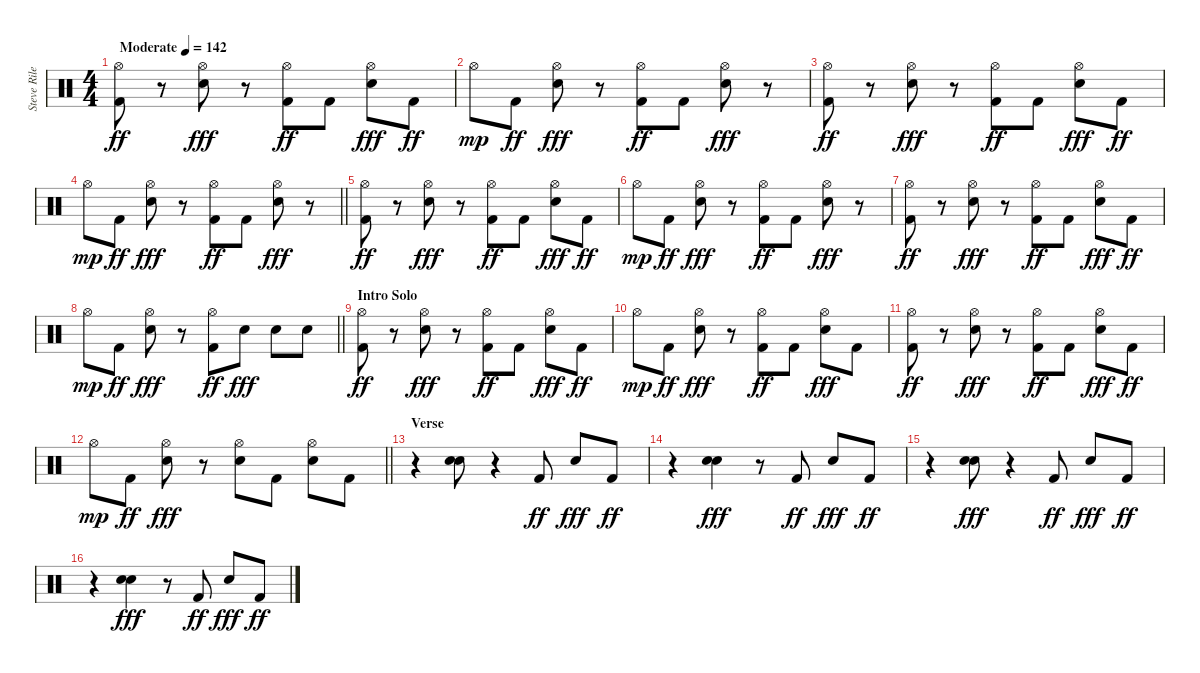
\track ("Steve Riley" "Steve Rile") {instrument percussion}
\staff {score}
\articulation defaults
\ts (4 4)
\tempo (142 "Moderate")
\clef neutral
\ks c
("Hi-Hat (open)" "Kick (hit) 2").8{dy ff} r.8 ("Hi-Hat (open)" "Electric Snare (hit)").8{dy fff} r.8 ("Hi-Hat (open)" "Kick (hit) 2").8{dy ff} "Kick (hit) 2".8 ("Hi-Hat (open)" "Electric Snare (hit)").8{dy fff} "Kick (hit) 2".8{dy ff} |
"Hi-Hat (open)".8{dy mp} "Kick (hit) 2".8{dy ff} ("Hi-Hat (open)" "Electric Snare (hit)").8{dy fff} r.8 ("Hi-Hat (open)" "Kick (hit) 2").8{dy ff} "Kick (hit) 2".8 ("Hi-Hat (open)" "Electric Snare (hit)").8{dy fff} r.8 |
("Hi-Hat (open)" "Kick (hit) 2").8{dy ff} r.8 ("Hi-Hat (open)" "Electric Snare (hit)").8{dy fff} r.8 ("Hi-Hat (open)" "Kick (hit) 2").8{dy ff} "Kick (hit) 2".8 ("Hi-Hat (open)" "Electric Snare (hit)").8{dy fff} "Kick (hit) 2".8{dy ff} |
\barLineRight lightlight "Hi-Hat (open)".8{dy mp} "Kick (hit) 2".8{dy ff}
("Hi-Hat (open)" "Electric Snare (hit)").8{dy fff} r.8 ("Hi-Hat (open)" "Kick (hit) 2").8{dy ff} "Kick (hit) 2".8 ("Hi-Hat (open)" "Electric Snare (hit)").8{dy fff} r.8 |
\section ("" "")
("Hi-Hat (open)" "Kick (hit) 2").8{dy ff} r.8 ("Hi-Hat (open)" "Electric Snare (hit)").8{dy fff} r.8 ("Hi-Hat (open)" "Kick (hit) 2").8{dy ff} "Kick (hit) 2".8 ("Hi-Hat (open)" "Electric Snare (hit)").8{dy fff} "Kick (hit) 2".8{dy ff} |
"Hi-Hat (open)".8{dy mp} "Kick (hit) 2".8{dy ff} ("Hi-Hat (open)" "Electric Snare (hit)").8{dy fff} r.8 ("Hi-Hat (open)" "Kick (hit) 2").8{dy ff} "Kick (hit) 2".8 ("Hi-Hat (open)" "Electric Snare (hit)").8{dy fff} r.8 |
("Hi-Hat (open)" "Kick (hit) 2").8{dy ff} r.8 ("Hi-Hat (open)" "Electric Snare (hit)").8{dy fff} r.8 ("Hi-Hat (open)" "Kick (hit) 2").8{dy ff} "Kick (hit) 2".8 ("Hi-Hat (open)" "Electric Snare (hit)").8{dy fff} "Kick (hit) 2".8{dy ff} |
\barLineRight lightlight "Hi-Hat (open)".8{dy mp} "Kick (hit) 2".8{dy ff}
("Hi-Hat (open)" "Electric Snare (hit)").8{dy fff} r.8 ("Hi-Hat (open)" "Kick (hit) 2").8{dy ff} "Electric Snare (hit)".8{dy fff} "Electric Snare (hit)".8 "Electric Snare (hit)".8 |
\section ("" "Intro Solo")
("Hi-Hat (open)" "Kick (hit) 2").8{dy ff} r.8 ("Hi-Hat (open)" "Electric Snare (hit)").8{dy fff} r.8 ("Hi-Hat (open)" "Kick (hit) 2").8{dy ff} "Kick (hit) 2".8 ("Hi-Hat (open)" "Electric Snare (hit)").8{dy fff} "Kick (hit) 2".8{dy ff} |
"Hi-Hat (open)".8{dy mp} "Kick (hit) 2".8{dy ff} ("Hi-Hat (open)" "Electric Snare (hit)").8{dy fff} r.8 ("Hi-Hat (open)" "Kick (hit) 2").8{dy ff} "Kick (hit) 2".8 ("Hi-Hat (open)" "Electric Snare (hit)").8{dy fff} "Kick (hit) 2".8 |
("Hi-Hat (open)" "Kick (hit) 2").8{dy ff} r.8 ("Hi-Hat (open)" "Electric Snare (hit)").8{dy fff} r.8 ("Hi-Hat (open)" "Kick (hit) 2").8{dy ff} "Kick (hit) 2".8 ("Hi-Hat (open)" "Electric Snare (hit)").8{dy fff} "Kick (hit) 2".8{dy ff} |
\barLineRight lightlight "Hi-Hat (open)".8{dy mp} "Kick (hit) 2".8{dy ff}
("Hi-Hat (open)" "Electric Snare (hit)").8{dy fff} r.8 ("Hi-Hat (open)" "Electric Snare (hit)").8 "Kick (hit) 2".8 ("Hi-Hat (open)" "Electric Snare (hit)").8 "Kick (hit) 2".8 |
\section ("" "Verse")
r.4 ("Electric Snare (hit)" "Electric Snare (hit)").8{bd 60} r.4 "Kick (hit) 2".8{dy ff} "Electric Snare (hit)".8{dy fff} "Kick (hit) 2".8{dy ff} |
r.4 ("Electric Snare (hit)" "Electric Snare (hit)").4{bd 60 dy fff} r.8 "Kick (hit) 2".8{dy ff} "Electric Snare (hit)".8{dy fff} "Kick (hit) 2".8{dy ff} |
r.4 ("Electric Snare (hit)" "Electric Snare (hit)").8{bd 60 dy fff} r.4 "Kick (hit) 2".8{dy ff} "Electric Snare (hit)".8{dy fff} "Kick (hit) 2".8{dy ff} |
r.4 ("Electric Snare (hit)" "Electric Snare (hit)").4{bd 60 dy fff} r.8 "Kick (hit) 2".8{dy ff} "Electric Snare (hit)".8{dy fff} "Kick (hit) 2".8{dy ff}
